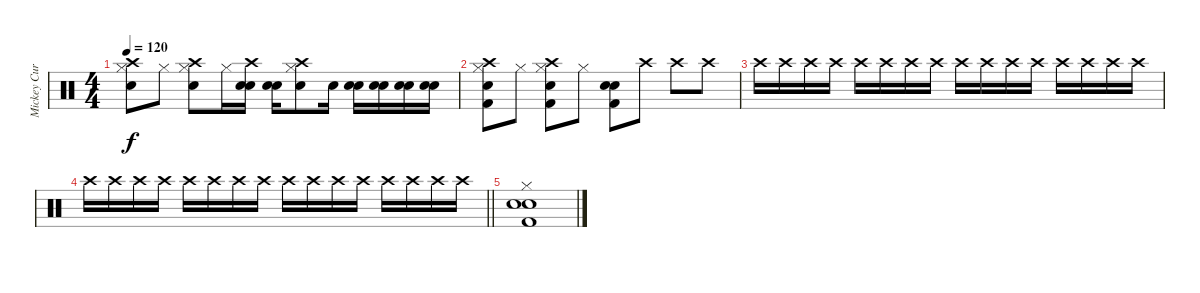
\track ("Mickey Curry" "Mickey Cur") {instrument percussion}
\staff {score}
\articulation defaults
\ts (4 4)
\tempo 120
\clef neutral
\ks c
("Hi-Hat (closed)" "Snare (hit) 2" "Crash high (hit)").8{dy f} "Hi-Hat (closed)".8 ("Hi-Hat (closed)" "Snare (hit) 2" "Crash high (hit)").8 "Hi-Hat (closed)".16 ("Snare (hit) 2" "Snare (hit) 2" "Crash high (hit)").16 ("Snare (hit) 2" "Snare (hit) 2").16 ("Snare (hit) 2" "Hi-Hat (closed)" "Crash high (hit)").8 "Snare (hit) 2".16 ("Snare (hit) 2" "Snare (hit) 2").16 ("Snare (hit) 2" "Snare (hit) 2").16 ("Snare (hit) 2" "Snare (hit) 2").16 ("Snare (hit) 2" "Snare (hit) 2").16 |
("Hi-Hat (closed)" "Snare (hit) 2" "Kick (hit) 2" "Crash high (hit)").8 "Hi-Hat (closed)".8 ("Hi-Hat (closed)" "Snare (hit) 2" "Kick (hit) 2" "Crash high (hit)").8 "Hi-Hat (closed)".8 ("Snare (hit) 2" "Kick (hit) 2" "Electric Snare (hit)").8 "Crash high (hit)".8 "Crash high (hit)".8 "Crash high (hit)".8 |
"Crash high (hit)".16 "Crash high (hit)".16 "Crash high (hit)".16 "Crash high (hit)".16 "Crash high (hit)".16 "Crash high (hit)".16 "Crash high (hit)".16 "Crash high (hit)".16 "Crash high (hit)".16 "Crash high (hit)".16 "Crash high (hit)".16 "Crash high (hit)".16 "Crash high (hit)".16 "Crash high (hit)".16 "Crash high (hit)".16 "Crash high (hit)".16 |
\barLineRight lightlight "Crash high (hit)".16 "Crash high (hit)".16 "Crash high (hit)".16 "Crash high (hit)".16 "Crash high (hit)".16 "Crash high (hit)".16 "Crash high (hit)".16 "Crash high (hit)".16 "Crash high (hit)".16 "Crash high (hit)".16 "Crash high (hit)".16 "Crash high (hit)".16 "Crash high (hit)".16 "Crash high (hit)".16 "Crash high (hit)".16 "Crash high (hit)".16
|
("Hi-Hat (closed)" "Snare (hit) 2" "Kick (hit) 2" "Electric Snare (hit)").1
